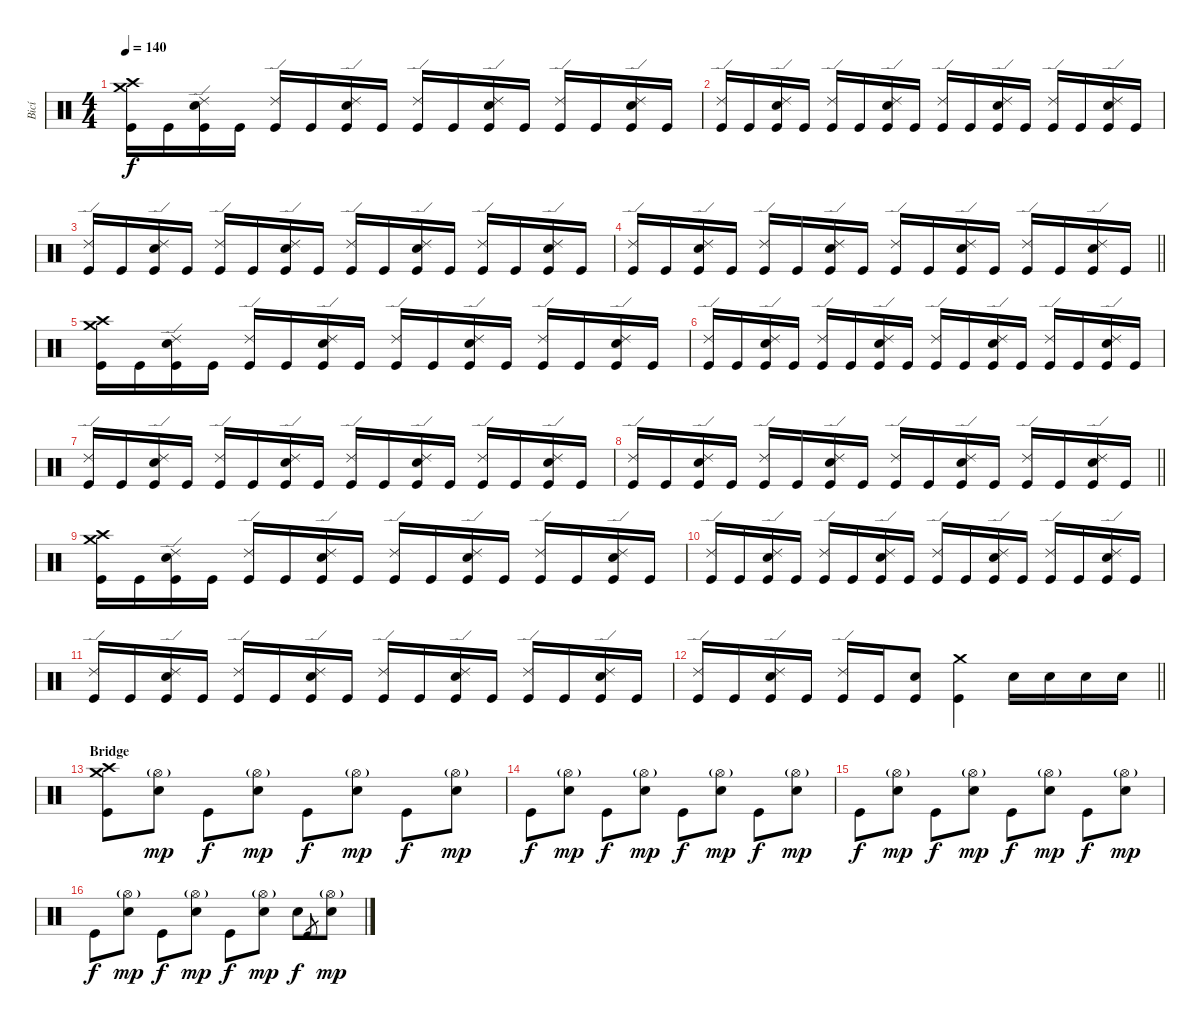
\track ("Bicí" "Bicí") {instrument percussion}
\staff {score}
\articulation defaults
\ts (4 4)
\tempo 140
\clef neutral
\ks c
("Crash high (hit)" "Crash medium (hit)" "Kick (hit)").16{dy f} "Kick (hit)".16 ("Ride (edge) 2" "Electric Snare (hit)" "Kick (hit)").16 "Kick (hit)".16 ("Ride (edge) 2" "Kick (hit)").16 "Kick (hit)".16 ("Ride (edge) 2" "Electric Snare (hit)" "Kick (hit)").16 "Kick (hit)".16 ("Ride (edge) 2" "Kick (hit)").16 "Kick (hit)".16 ("Ride (edge) 2" "Electric Snare (hit)" "Kick (hit)").16 "Kick (hit)".16 ("Ride (edge) 2" "Kick (hit)").16 "Kick (hit)".16 ("Ride (edge) 2" "Electric Snare (hit)" "Kick (hit)").16 "Kick (hit)".16 |
("Ride (edge) 2" "Kick (hit)").16 "Kick (hit)".16 ("Ride (edge) 2" "Electric Snare (hit)" "Kick (hit)").16 "Kick (hit)".16 ("Ride (edge) 2" "Kick (hit)").16 "Kick (hit)".16 ("Ride (edge) 2" "Electric Snare (hit)" "Kick (hit)").16 "Kick (hit)".16 ("Ride (edge) 2" "Kick (hit)").16 "Kick (hit)".16 ("Ride (edge) 2" "Electric Snare (hit)" "Kick (hit)").16 "Kick (hit)".16 ("Ride (edge) 2" "Kick (hit)").16 "Kick (hit)".16 ("Ride (edge) 2" "Electric Snare (hit)" "Kick (hit)").16 "Kick (hit)".16 |
("Ride (edge) 2" "Kick (hit)").16 "Kick (hit)".16 ("Ride (edge) 2" "Electric Snare (hit)" "Kick (hit)").16 "Kick (hit)".16 ("Ride (edge) 2" "Kick (hit)").16 "Kick (hit)".16 ("Ride (edge) 2" "Electric Snare (hit)" "Kick (hit)").16 "Kick (hit)".16 ("Ride (edge) 2" "Kick (hit)").16 "Kick (hit)".16 ("Ride (edge) 2" "Electric Snare (hit)" "Kick (hit)").16 "Kick (hit)".16 ("Ride (edge) 2" "Kick (hit)").16 "Kick (hit)".16 ("Ride (edge) 2" "Electric Snare (hit)" "Kick (hit)").16 "Kick (hit)".16 |
\barLineRight lightlight
("Ride (edge) 2" "Kick (hit)").16 "Kick (hit)".16 ("Ride (edge) 2" "Electric Snare (hit)" "Kick (hit)").16 "Kick (hit)".16 ("Ride (edge) 2" "Kick (hit)").16 "Kick (hit)".16 ("Ride (edge) 2" "Electric Snare (hit)" "Kick (hit)").16 "Kick (hit)".16 ("Ride (edge) 2" "Kick (hit)").16 "Kick (hit)".16 ("Ride (edge) 2" "Electric Snare (hit)" "Kick (hit)").16 "Kick (hit)".16 ("Ride (edge) 2" "Kick (hit)").16 "Kick (hit)".16 ("Ride (edge) 2" "Electric Snare (hit)" "Kick (hit)").16 "Kick (hit)".16 |
("Crash high (hit)" "Crash medium (hit)" "Kick (hit)").16 "Kick (hit)".16 ("Ride (edge) 2" "Electric Snare (hit)" "Kick (hit)").16 "Kick (hit)".16 ("Ride (edge) 2" "Kick (hit)").16 "Kick (hit)".16 ("Ride (edge) 2" "Electric Snare (hit)" "Kick (hit)").16 "Kick (hit)".16 ("Ride (edge) 2" "Kick (hit)").16 "Kick (hit)".16 ("Ride (edge) 2" "Electric Snare (hit)" "Kick (hit)").16 "Kick (hit)".16 ("Ride (edge) 2" "Kick (hit)").16 "Kick (hit)".16 ("Ride (edge) 2" "Electric Snare (hit)" "Kick (hit)").16 "Kick (hit)".16 |
("Ride (edge) 2" "Kick (hit)").16 "Kick (hit)".16 ("Ride (edge) 2" "Electric Snare (hit)" "Kick (hit)").16 "Kick (hit)".16 ("Ride (edge) 2" "Kick (hit)").16 "Kick (hit)".16 ("Ride (edge) 2" "Electric Snare (hit)" "Kick (hit)").16 "Kick (hit)".16 ("Ride (edge) 2" "Kick (hit)").16 "Kick (hit)".16 ("Ride (edge) 2" "Electric Snare (hit)" "Kick (hit)").16 "Kick (hit)".16 ("Ride (edge) 2" "Kick (hit)").16 "Kick (hit)".16 ("Ride (edge) 2" "Electric Snare (hit)" "Kick (hit)").16 "Kick (hit)".16 |
("Ride (edge) 2" "Kick (hit)").16 "Kick (hit)".16 ("Ride (edge) 2" "Electric Snare (hit)" "Kick (hit)").16 "Kick (hit)".16 ("Ride (edge) 2" "Kick (hit)").16 "Kick (hit)".16 ("Ride (edge) 2" "Electric Snare (hit)" "Kick (hit)").16 "Kick (hit)".16 ("Ride (edge) 2" "Kick (hit)").16 "Kick (hit)".16 ("Ride (edge) 2" "Electric Snare (hit)" "Kick (hit)").16 "Kick (hit)".16 ("Ride (edge) 2" "Kick (hit)").16 "Kick (hit)".16 ("Ride (edge) 2" "Electric Snare (hit)" "Kick (hit)").16 "Kick (hit)".16 |
\barLineRight lightlight
("Ride (edge) 2" "Kick (hit)").16 "Kick (hit)".16 ("Ride (edge) 2" "Electric Snare (hit)" "Kick (hit)").16 "Kick (hit)".16 ("Ride (edge) 2" "Kick (hit)").16 "Kick (hit)".16 ("Ride (edge) 2" "Electric Snare (hit)" "Kick (hit)").16 "Kick (hit)".16 ("Ride (edge) 2" "Kick (hit)").16 "Kick (hit)".16 ("Ride (edge) 2" "Electric Snare (hit)" "Kick (hit)").16 "Kick (hit)".16 ("Ride (edge) 2" "Kick (hit)").16 "Kick (hit)".16 ("Ride (edge) 2" "Electric Snare (hit)" "Kick (hit)").16 "Kick (hit)".16 |
("Crash high (hit)" "Crash medium (hit)" "Kick (hit)").16 "Kick (hit)".16 ("Ride (edge) 2" "Electric Snare (hit)" "Kick (hit)").16 "Kick (hit)".16 ("Ride (edge) 2" "Kick (hit)").16 "Kick (hit)".16 ("Ride (edge) 2" "Electric Snare (hit)" "Kick (hit)").16 "Kick (hit)".16 ("Ride (edge) 2" "Kick (hit)").16 "Kick (hit)".16 ("Ride (edge) 2" "Electric Snare (hit)" "Kick (hit)").16 "Kick (hit)".16 ("Ride (edge) 2" "Kick (hit)").16 "Kick (hit)".16 ("Ride (edge) 2" "Electric Snare (hit)" "Kick (hit)").16 "Kick (hit)".16 |
("Ride (edge) 2" "Kick (hit)").16 "Kick (hit)".16 ("Ride (edge) 2" "Electric Snare (hit)" "Kick (hit)").16 "Kick (hit)".16 ("Ride (edge) 2" "Kick (hit)").16 "Kick (hit)".16 ("Ride (edge) 2" "Electric Snare (hit)" "Kick (hit)").16 "Kick (hit)".16 ("Ride (edge) 2" "Kick (hit)").16 "Kick (hit)".16 ("Ride (edge) 2" "Electric Snare (hit)" "Kick (hit)").16 "Kick (hit)".16 ("Ride (edge) 2" "Kick (hit)").16 "Kick (hit)".16 ("Ride (edge) 2" "Electric Snare (hit)" "Kick (hit)").16 "Kick (hit)".16 |
("Ride (edge) 2" "Kick (hit)").16 "Kick (hit)".16 ("Ride (edge) 2" "Electric Snare (hit)" "Kick (hit)").16 "Kick (hit)".16 ("Ride (edge) 2" "Kick (hit)").16 "Kick (hit)".16 ("Ride (edge) 2" "Electric Snare (hit)" "Kick (hit)").16 "Kick (hit)".16 ("Ride (edge) 2" "Kick (hit)").16 "Kick (hit)".16 ("Ride (edge) 2" "Electric Snare (hit)" "Kick (hit)").16 "Kick (hit)".16 ("Ride (edge) 2" "Kick (hit)").16 "Kick (hit)".16 ("Ride (edge) 2" "Electric Snare (hit)" "Kick (hit)").16 "Kick (hit)".16 |
\barLineRight lightlight
("Ride (edge) 2" "Kick (hit)").16 "Kick (hit)".16 ("Ride (edge) 2" "Electric Snare (hit)" "Kick (hit)").16 "Kick (hit)".16 ("Ride (edge) 2" "Kick (hit)").16 "Kick (hit)".16 ("Electric Snare (hit)" "Kick (hit)").8 ("Crash medium (hit)" "Kick (hit)").4 "Electric Snare (hit)".16 "Electric Snare (hit)".16 "Electric Snare (hit)".16 "Electric Snare (hit)".16 |
\section ("" "Bridge")
("Crash high (hit)" "Crash medium (hit)" "Kick (hit)").8 ("Hi-Hat (open)"{g} "Electric Snare (hit)").8{dy mp} "Kick (hit)".8{dy f} ("Hi-Hat (open)"{g} "Electric Snare (hit)").8{dy mp} "Kick (hit)".8{dy f} ("Hi-Hat (open)"{g} "Electric Snare (hit)").8{dy mp} "Kick (hit)".8{dy f} ("Hi-Hat (open)"{g} "Electric Snare (hit)").8{dy mp} |
"Kick (hit)".8{dy f} ("Hi-Hat (open)"{g} "Electric Snare (hit)").8{dy mp} "Kick (hit)".8{dy f} ("Hi-Hat (open)"{g} "Electric Snare (hit)").8{dy mp} "Kick (hit)".8{dy f} ("Hi-Hat (open)"{g} "Electric Snare (hit)").8{dy mp} "Kick (hit)".8{dy f} ("Hi-Hat (open)"{g} "Electric Snare (hit)").8{dy mp} |
"Kick (hit)".8{dy f} ("Hi-Hat (open)"{g} "Electric Snare (hit)").8{dy mp} "Kick (hit)".8{dy f} ("Hi-Hat (open)"{g} "Electric Snare (hit)").8{dy mp} "Kick (hit)".8{dy f} ("Hi-Hat (open)"{g} "Electric Snare (hit)").8{dy mp} "Kick (hit)".8{dy f} ("Hi-Hat (open)"{g} "Electric Snare (hit)").8{dy mp} |
"Kick (hit)".8{dy f} ("Hi-Hat (open)"{g} "Electric Snare (hit)").8{dy mp} "Kick (hit)".8{dy f} ("Hi-Hat (open)"{g} "Electric Snare (hit)").8{dy mp} "Kick (hit)".8{dy f} ("Hi-Hat (open)"{g} "Electric Snare (hit)").8{dy mp} "Snare (hit)".8{dy f} "Kick (hit)".8{gr} ("Hi-Hat (open)"{g} "Electric Snare (hit)").8{dy mp}
